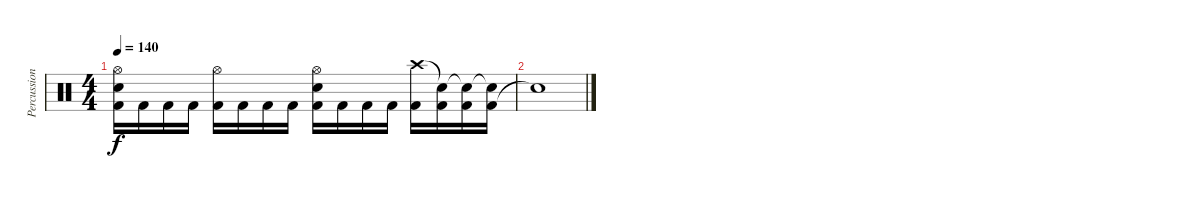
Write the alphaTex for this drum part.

\track ("Percussions" "Percussion") {instrument percussion}
\staff {score}
\articulation defaults
\ts (4 4)
\tempo 140
\clef neutral
\ks c
("Kick (hit) 2" "Electric Snare (hit)" "Hi-Hat (open)").16{dy f} "Kick (hit) 2".16 "Kick (hit) 2".16 "Kick (hit) 2".16 ("Kick (hit) 2" "Hi-Hat (open)").16 "Kick (hit) 2".16 "Kick (hit) 2".16 "Kick (hit) 2".16 ("Kick (hit) 2" "Electric Snare (hit)" "Hi-Hat (open)").16 "Kick (hit) 2".16 "Kick (hit) 2".16 "Kick (hit) 2".16 ("Kick (hit) 2" "Crash high (hit)").16 ("Kick (hit) 2" "Snare (hit)"{t}).16 ("Kick (hit) 2" "Snare (hit)"{t}).16 ("Kick (hit) 2" "Snare (hit)"{t}).16 |
"Snare (hit)"{t}.1
